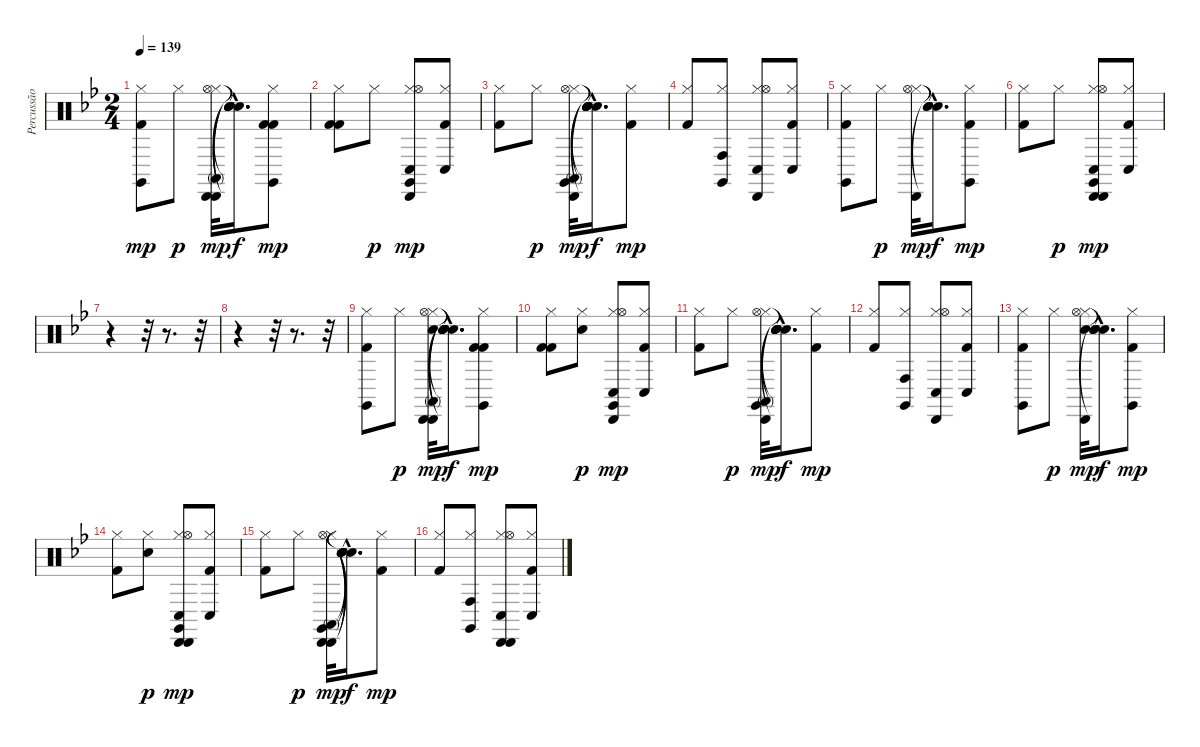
\track ("Percussão" "Percussão") {instrument percussion}
\staff {score}
\articulation defaults
\ts (2 4)
\tempo 139
\clef neutral
\ks bb
("Hi-Hat (closed)" "Claves (hit)" "Kick (hit) 2").8{dy mp} "Hi-Hat (closed)".8{dy p} ("Conga high (mute)" "Cabasa (hit)" "Cabasa (hit)" "Hi-Hat (closed)" "Hi-Hat (open)").32{dy mp} ("Snare (hit)"{hac t} "Snare (hit)"{hac t} "Snare (hit)"{hac t} "Snare (hit)"{hac t} "Snare (hit)"{hac t}).16{d dy f} ("Hi-Hat (closed)" "Claves (hit)" "Kick (hit) 2" "Kick (hit) 2").8{dy mp} |
("Hi-Hat (closed)" "Kick (hit) 2" "Kick (hit) 2").8 "Hi-Hat (closed)".8{dy p} ("Cabasa (hit)" "Conga low (hit)" "Claves (hit)" "Hi-Hat (closed)" "Hi-Hat (open)").8{dy mp} ("Hi-Hat (closed)" "Conga low (hit)" "Kick (hit) 2").8 |
("Hi-Hat (closed)" "Kick (hit) 2").8 "Hi-Hat (closed)".8{dy p} ("Conga high (mute)" "Cabasa (hit)" "Claves (hit)" "Hi-Hat (closed)" "Hi-Hat (open)").32{dy mp} ("Snare (hit)"{hac t} "Snare (hit)"{hac t} "Snare (hit)"{hac t} "Snare (hit)"{hac t} "Snare (hit)"{hac t}).16{d dy f} ("Hi-Hat (closed)" "Kick (hit) 2").8{dy mp} |
("Hi-Hat (closed)" "Kick (hit) 2").8 ("Hi-Hat (closed)" "Claves (hit)" "Conga high (hit)").8 ("Cabasa (hit)" "Conga low (hit)" "Hi-Hat (closed)" "Hi-Hat (open)").8 ("Hi-Hat (closed)" "Conga low (hit)" "Kick (hit) 2").8 |
("Hi-Hat (closed)" "Claves (hit)" "Kick (hit) 2").8 "Hi-Hat (closed)".8{dy p} ("Cabasa (hit)" "Hi-Hat (closed)" "Hi-Hat (open)").32{dy mp} ("Snare (hit)"{hac t} "Snare (hit)"{hac t} "Snare (hit)"{hac t}).16{d dy f} ("Hi-Hat (closed)" "Claves (hit)" "Kick (hit) 2").8{dy mp} |
("Hi-Hat (closed)" "Kick (hit) 2").8 "Hi-Hat (closed)".8{dy p} ("Cabasa (hit)" "Cabasa (hit)" "Conga low (hit)" "Claves (hit)" "Hi-Hat (closed)" "Hi-Hat (open)").8{dy mp} ("Hi-Hat (closed)" "Conga low (hit)" "Kick (hit) 2").8 |
r.4 r.32 r.8{d} r.32 |
r.4 r.32 r.8{d} r.32 |
("Hi-Hat (closed)" "Claves (hit)" "Kick (hit) 2").8 "Hi-Hat (closed)".8{dy p} ("Conga high (mute)" "Cabasa (hit)" "Cabasa (hit)" "Electric Snare (hit)" "Hi-Hat (closed)" "Hi-Hat (open)").32{dy mp} ("Snare (hit)"{hac t} "Snare (hit)"{hac t} "Snare (hit)"{hac t} "Snare (hit)"{hac t} "Snare (hit)"{hac t} "Snare (hit)"{hac t}).16{d dy f} ("Hi-Hat (closed)" "Claves (hit)" "Kick (hit) 2" "Kick (hit) 2").8{dy mp} |
("Hi-Hat (closed)" "Kick (hit) 2" "Kick (hit) 2").8 ("Hi-Hat (closed)" "Electric Snare (hit)").8{dy p} ("Cabasa (hit)" "Conga low (hit)" "Claves (hit)" "Hi-Hat (closed)" "Hi-Hat (open)").8{dy mp} ("Hi-Hat (closed)" "Conga low (hit)" "Kick (hit) 2").8 |
("Hi-Hat (closed)" "Kick (hit) 2").8 "Hi-Hat (closed)".8{dy p} ("Conga high (mute)" "Cabasa (hit)" "Claves (hit)" "Hi-Hat (closed)" "Hi-Hat (open)").32{dy mp} ("Snare (hit)"{hac t} "Snare (hit)"{hac t} "Snare (hit)"{hac t} "Snare (hit)"{hac t} "Snare (hit)"{hac t}).16{d dy f} ("Hi-Hat (closed)" "Kick (hit) 2").8{dy mp} |
("Hi-Hat (closed)" "Kick (hit) 2").8 ("Hi-Hat (closed)" "Claves (hit)" "Conga high (hit)").8 ("Cabasa (hit)" "Conga low (hit)" "Hi-Hat (closed)" "Hi-Hat (open)").8 ("Hi-Hat (closed)" "Conga low (hit)" "Kick (hit) 2").8 |
("Hi-Hat (closed)" "Claves (hit)" "Kick (hit) 2").8 "Hi-Hat (closed)".8{dy p} ("Cabasa (hit)" "Electric Snare (hit)" "Hi-Hat (closed)" "Hi-Hat (open)").32{dy mp} ("Snare (hit)"{hac t} "Snare (hit)"{hac t} "Snare (hit)"{hac t} "Snare (hit)"{hac t}).16{d dy f} ("Hi-Hat (closed)" "Claves (hit)" "Kick (hit) 2").8{dy mp} |
("Hi-Hat (closed)" "Kick (hit) 2").8 ("Hi-Hat (closed)" "Electric Snare (hit)").8{dy p} ("Cabasa (hit)" "Cabasa (hit)" "Conga low (hit)" "Claves (hit)" "Hi-Hat (closed)" "Hi-Hat (open)").8{dy mp} ("Hi-Hat (closed)" "Conga low (hit)" "Kick (hit) 2").8 |
("Hi-Hat (closed)" "Kick (hit) 2").8 "Hi-Hat (closed)".8{dy p} ("Conga high (mute)" "Cabasa (hit)" "Cabasa (hit)" "Claves (hit)" "Hi-Hat (closed)" "Hi-Hat (open)").32{dy mp} ("Snare (hit)"{hac t} "Snare (hit)"{hac t} "Snare (hit)"{hac t} "Snare (hit)"{hac t} "Snare (hit)"{hac t} "Snare (hit)"{hac t}).16{d dy f} ("Hi-Hat (closed)" "Kick (hit) 2").8{dy mp} |
("Hi-Hat (closed)" "Kick (hit) 2").8 ("Hi-Hat (closed)" "Claves (hit)" "Conga high (hit)").8 ("Cabasa (hit)" "Cabasa (hit)" "Conga low (hit)" "Hi-Hat (closed)" "Hi-Hat (open)").8 ("Hi-Hat (closed)" "Conga low (hit)" "Kick (hit) 2").8
